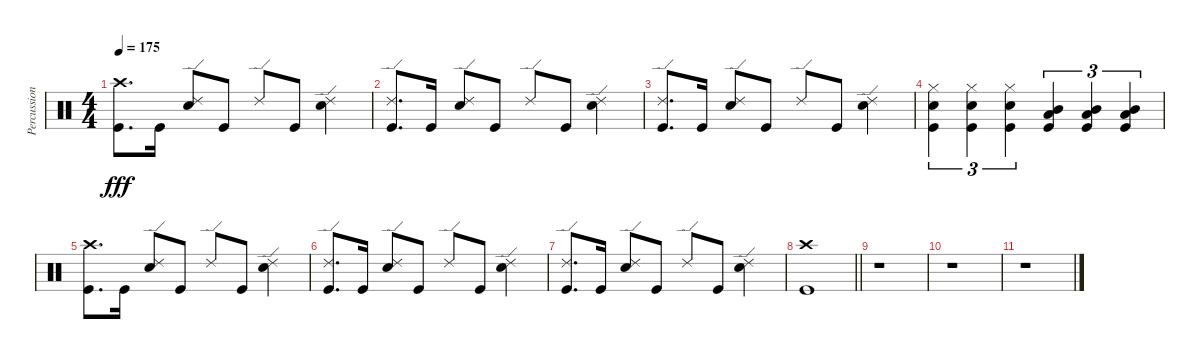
\track ("Percussion" "Percussion") {instrument percussion}
\staff {score}
\articulation defaults
\ts (4 4)
\tempo 175
\clef neutral
\ks c
("Crash high (hit)" "Kick (hit)").8{d dy fff} "Kick (hit)".16 ("Ride (edge) 2" "Snare (hit) 2").8 "Kick (hit)".8 "Ride (edge) 2".8 "Kick (hit)".8 ("Ride (edge) 2" "Snare (hit) 2").4 |
("Ride (edge) 2" "Kick (hit)").8{d} "Kick (hit)".16 ("Ride (edge) 2" "Snare (hit) 2").8 "Kick (hit)".8 "Ride (edge) 2".8 "Kick (hit)".8 ("Ride (edge) 2" "Snare (hit) 2").4 |
("Ride (edge) 2" "Kick (hit)").8{d} "Kick (hit)".16 ("Ride (edge) 2" "Snare (hit) 2").8 "Kick (hit)".8 "Ride (edge) 2".8 "Kick (hit)".8 ("Ride (edge) 2" "Snare (hit) 2").4 |
("Hi-Hat (closed)" "Snare (hit) 2" "Kick (hit)").4{tu (3 2)} ("Hi-Hat (closed)" "Snare (hit) 2" "Kick (hit)").4{tu (3 2)} ("Hi-Hat (closed)" "Snare (hit) 2" "Kick (hit)").4{tu (3 2)} ("Mid Tom (hit)" "Low Tom (hit)" "Kick (hit)").4{tu (3 2)} ("Mid Tom (hit)" "Low Tom (hit)" "Kick (hit)").4{tu (3 2)} ("Mid Tom (hit)" "Low Tom (hit)" "Kick (hit)").4{tu (3 2)} |
("Crash high (hit)" "Kick (hit)").8{d} "Kick (hit)".16 ("Ride (edge) 2" "Snare (hit) 2").8 "Kick (hit)".8 "Ride (edge) 2".8 "Kick (hit)".8 ("Ride (edge) 2" "Snare (hit) 2").4 |
("Ride (edge) 2" "Kick (hit)").8{d} "Kick (hit)".16 ("Ride (edge) 2" "Snare (hit) 2").8 "Kick (hit)".8 "Ride (edge) 2".8 "Kick (hit)".8 ("Ride (edge) 2" "Snare (hit) 2").4 |
("Ride (edge) 2" "Kick (hit)").8{d} "Kick (hit)".16 ("Ride (edge) 2" "Snare (hit) 2").8 "Kick (hit)".8 "Ride (edge) 2".8 "Kick (hit)".8 ("Ride (edge) 2" "Snare (hit) 2").4 |
\barLineRight lightlight
("Crash high (hit)" "Kick (hit)").1 |
r.1 |
r.1 |
r.1
